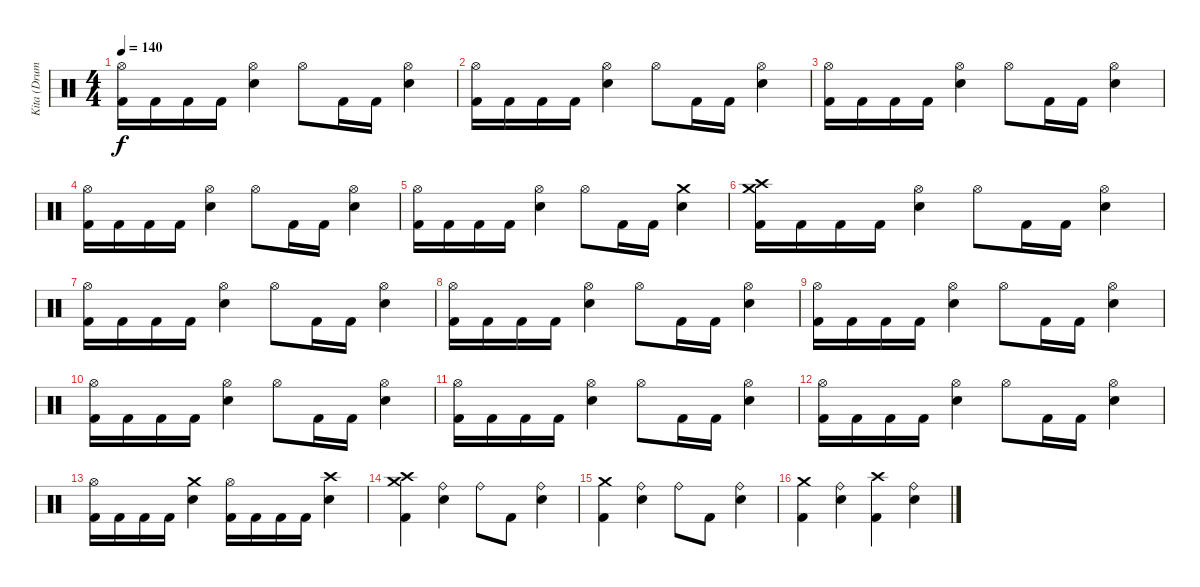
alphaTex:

\track ("Kita (Drums)" "Kita (Drum") {instrument percussion}
\staff {score}
\articulation defaults
\ts (4 4)
\tempo 140
\clef neutral
\ks c
("Hi-Hat (open)" "Kick (hit) 2").16{dy f} "Kick (hit) 2".16 "Kick (hit) 2".16 "Kick (hit) 2".16 ("Hi-Hat (open)" "Electric Snare (hit)").4 "Hi-Hat (open)".8 "Kick (hit) 2".16 "Kick (hit) 2".16 ("Hi-Hat (open)" "Electric Snare (hit)").4 |
("Hi-Hat (open)" "Kick (hit) 2").16 "Kick (hit) 2".16 "Kick (hit) 2".16 "Kick (hit) 2".16 ("Hi-Hat (open)" "Electric Snare (hit)").4 "Hi-Hat (open)".8 "Kick (hit) 2".16 "Kick (hit) 2".16 ("Hi-Hat (open)" "Electric Snare (hit)").4 |
("Hi-Hat (open)" "Kick (hit) 2").16 "Kick (hit) 2".16 "Kick (hit) 2".16 "Kick (hit) 2".16 ("Hi-Hat (open)" "Electric Snare (hit)").4 "Hi-Hat (open)".8 "Kick (hit) 2".16 "Kick (hit) 2".16 ("Hi-Hat (open)" "Electric Snare (hit)").4 |
("Hi-Hat (open)" "Kick (hit) 2").16 "Kick (hit) 2".16 "Kick (hit) 2".16 "Kick (hit) 2".16 ("Hi-Hat (open)" "Electric Snare (hit)").4 "Hi-Hat (open)".8 "Kick (hit) 2".16 "Kick (hit) 2".16 ("Hi-Hat (open)" "Electric Snare (hit)").4 |
("Hi-Hat (open)" "Kick (hit) 2").16 "Kick (hit) 2".16 "Kick (hit) 2".16 "Kick (hit) 2".16 ("Hi-Hat (open)" "Electric Snare (hit)").4 "Hi-Hat (open)".8 "Kick (hit) 2".16 "Kick (hit) 2".16 ("Crash medium (hit)" "Electric Snare (hit)").4 |
("Crash medium (hit)" "Crash high (hit)" "Kick (hit) 2").16 "Kick (hit) 2".16 "Kick (hit) 2".16 "Kick (hit) 2".16 ("Hi-Hat (open)" "Electric Snare (hit)").4 "Hi-Hat (open)".8 "Kick (hit) 2".16 "Kick (hit) 2".16 ("Hi-Hat (open)" "Electric Snare (hit)").4 |
("Hi-Hat (open)" "Kick (hit) 2").16 "Kick (hit) 2".16 "Kick (hit) 2".16 "Kick (hit) 2".16 ("Hi-Hat (open)" "Electric Snare (hit)").4 "Hi-Hat (open)".8 "Kick (hit) 2".16 "Kick (hit) 2".16 ("Hi-Hat (open)" "Electric Snare (hit)").4 |
("Hi-Hat (open)" "Kick (hit) 2").16 "Kick (hit) 2".16 "Kick (hit) 2".16 "Kick (hit) 2".16 ("Hi-Hat (open)" "Electric Snare (hit)").4 "Hi-Hat (open)".8 "Kick (hit) 2".16 "Kick (hit) 2".16 ("Hi-Hat (open)" "Electric Snare (hit)").4 |
("Hi-Hat (open)" "Kick (hit) 2").16 "Kick (hit) 2".16 "Kick (hit) 2".16 "Kick (hit) 2".16 ("Hi-Hat (open)" "Electric Snare (hit)").4 "Hi-Hat (open)".8 "Kick (hit) 2".16 "Kick (hit) 2".16 ("Hi-Hat (open)" "Electric Snare (hit)").4 |
("Hi-Hat (open)" "Kick (hit) 2").16 "Kick (hit) 2".16 "Kick (hit) 2".16 "Kick (hit) 2".16 ("Hi-Hat (open)" "Electric Snare (hit)").4 "Hi-Hat (open)".8 "Kick (hit) 2".16 "Kick (hit) 2".16 ("Hi-Hat (open)" "Electric Snare (hit)").4 |
("Hi-Hat (open)" "Kick (hit) 2").16 "Kick (hit) 2".16 "Kick (hit) 2".16 "Kick (hit) 2".16 ("Hi-Hat (open)" "Electric Snare (hit)").4 "Hi-Hat (open)".8 "Kick (hit) 2".16 "Kick (hit) 2".16 ("Hi-Hat (open)" "Electric Snare (hit)").4 |
("Hi-Hat (open)" "Kick (hit) 2").16 "Kick (hit) 2".16 "Kick (hit) 2".16 "Kick (hit) 2".16 ("Hi-Hat (open)" "Electric Snare (hit)").4 "Hi-Hat (open)".8 "Kick (hit) 2".16 "Kick (hit) 2".16 ("Hi-Hat (open)" "Electric Snare (hit)").4 |
("Hi-Hat (open)" "Kick (hit) 2").16 "Kick (hit) 2".16 "Kick (hit) 2".16 "Kick (hit) 2".16 ("Crash medium (hit)" "Electric Snare (hit)").4 ("Hi-Hat (open)" "Kick (hit) 2").16 "Kick (hit) 2".16 "Kick (hit) 2".16 "Kick (hit) 2".16 ("Crash high (hit)" "Electric Snare (hit)").4 |
("Crash medium (hit)" "Crash high (hit)" "Kick (hit) 2").4 ("Ride (bell)" "Electric Snare (hit)").4 "Ride (bell)".8 "Kick (hit) 2".8 ("Ride (bell)" "Electric Snare (hit)").4 |
("Crash medium (hit)" "Kick (hit) 2").4 ("Ride (bell)" "Electric Snare (hit)").4 "Ride (bell)".8 "Kick (hit) 2".8 ("Ride (bell)" "Electric Snare (hit)").4 |
("Crash medium (hit)" "Kick (hit) 2").4 ("Ride (bell)" "Electric Snare (hit)").4 ("Crash high (hit)" "Kick (hit) 2").4 ("Ride (bell)" "Electric Snare (hit)").4
